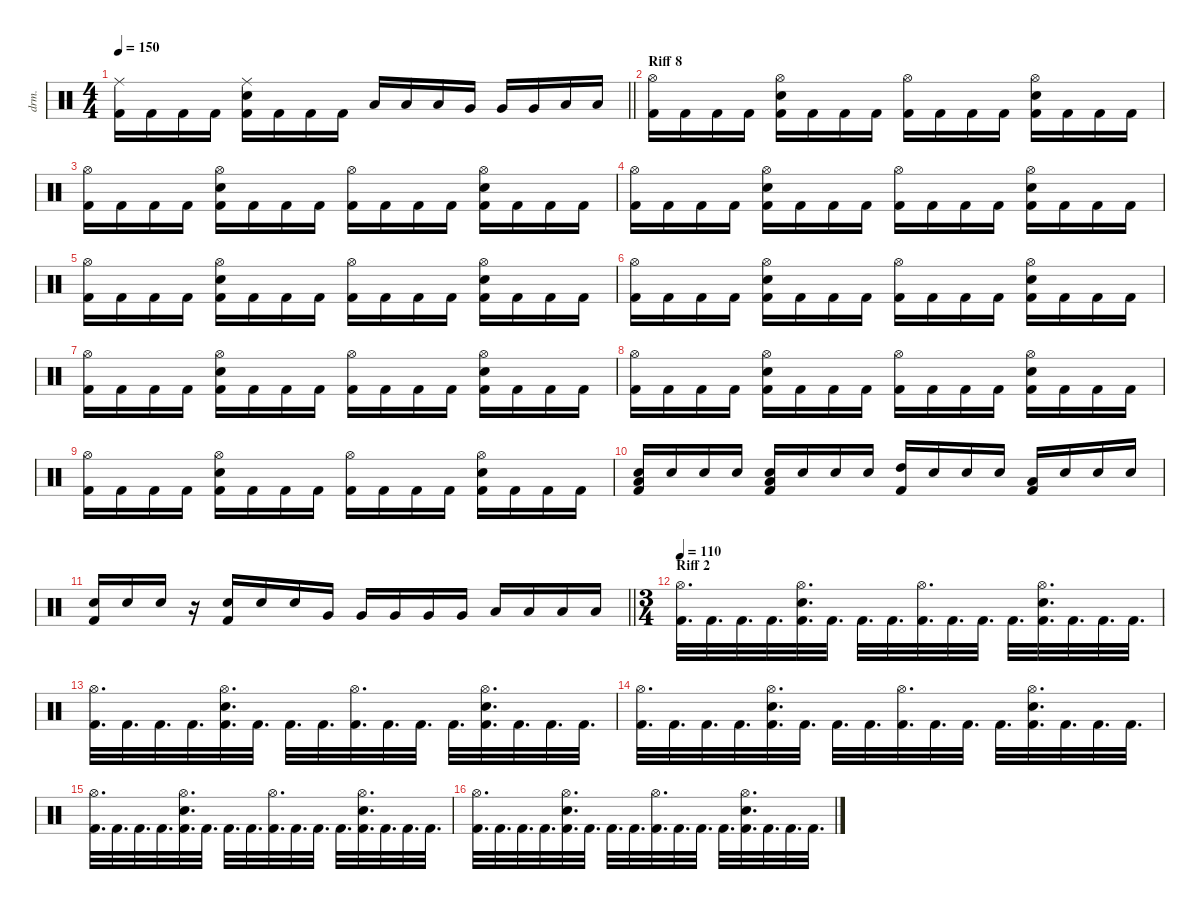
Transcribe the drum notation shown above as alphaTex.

\defaultSystemsLayout 4
\hideDynamics
\bracketExtendMode nobrackets
\otherSystemsTrackNameOrientation horizontal
\track ("Drums" "drm.") {instrument percussion}
\staff {score}
\articulation defaults
\ts (4 4)
\tempo 150
\clef neutral
\barLineRight lightlight
\ks c
("Ride (middle)" "Kick (hit) 2").16{dy f} "Kick (hit) 2".16 "Kick (hit) 2".16 "Kick (hit) 2".16 ("Snare (hit) 2" "Ride (middle)" "Kick (hit) 2").16 "Kick (hit) 2".16 "Kick (hit) 2".16 "Kick (hit) 2".16 "Low Tom (hit)".16 "Low Tom (hit)".16 "Low Tom (hit)".16 "Very Low Tom (hit)".16 "Very Low Tom (hit)".16 "Very Low Tom (hit)".16 "Low Floor Tom (hit)".16 "Low Floor Tom (hit)".16 |
\section ("" "Riff 8")
("Hi-Hat (open)" "Kick (hit) 2").16 "Kick (hit) 2".16 "Kick (hit) 2".16 "Kick (hit) 2".16 ("Hi-Hat (open)" "Snare (hit) 2" "Kick (hit) 2").16 "Kick (hit) 2".16 "Kick (hit) 2".16 "Kick (hit) 2".16 ("Hi-Hat (open)" "Kick (hit) 2").16 "Kick (hit) 2".16 "Kick (hit) 2".16 "Kick (hit) 2".16 ("Hi-Hat (open)" "Snare (hit) 2" "Kick (hit) 2").16 "Kick (hit) 2".16 "Kick (hit) 2".16 "Kick (hit) 2".16 |
("Hi-Hat (open)" "Kick (hit) 2").16 "Kick (hit) 2".16 "Kick (hit) 2".16 "Kick (hit) 2".16 ("Hi-Hat (open)" "Snare (hit) 2" "Kick (hit) 2").16 "Kick (hit) 2".16 "Kick (hit) 2".16 "Kick (hit) 2".16 ("Hi-Hat (open)" "Kick (hit) 2").16 "Kick (hit) 2".16 "Kick (hit) 2".16 "Kick (hit) 2".16 ("Hi-Hat (open)" "Snare (hit) 2" "Kick (hit) 2").16 "Kick (hit) 2".16 "Kick (hit) 2".16 "Kick (hit) 2".16 |
("Hi-Hat (open)" "Kick (hit) 2").16 "Kick (hit) 2".16 "Kick (hit) 2".16 "Kick (hit) 2".16 ("Hi-Hat (open)" "Snare (hit) 2" "Kick (hit) 2").16 "Kick (hit) 2".16 "Kick (hit) 2".16 "Kick (hit) 2".16 ("Hi-Hat (open)" "Kick (hit) 2").16 "Kick (hit) 2".16 "Kick (hit) 2".16 "Kick (hit) 2".16 ("Hi-Hat (open)" "Snare (hit) 2" "Kick (hit) 2").16 "Kick (hit) 2".16 "Kick (hit) 2".16 "Kick (hit) 2".16 |
("Hi-Hat (open)" "Kick (hit) 2").16 "Kick (hit) 2".16 "Kick (hit) 2".16 "Kick (hit) 2".16 ("Hi-Hat (open)" "Snare (hit) 2" "Kick (hit) 2").16 "Kick (hit) 2".16 "Kick (hit) 2".16 "Kick (hit) 2".16 ("Hi-Hat (open)" "Kick (hit) 2").16 "Kick (hit) 2".16 "Kick (hit) 2".16 "Kick (hit) 2".16 ("Hi-Hat (open)" "Snare (hit) 2" "Kick (hit) 2").16 "Kick (hit) 2".16 "Kick (hit) 2".16 "Kick (hit) 2".16 |
("Hi-Hat (open)" "Kick (hit) 2").16 "Kick (hit) 2".16 "Kick (hit) 2".16 "Kick (hit) 2".16 ("Hi-Hat (open)" "Snare (hit) 2" "Kick (hit) 2").16 "Kick (hit) 2".16 "Kick (hit) 2".16 "Kick (hit) 2".16 ("Hi-Hat (open)" "Kick (hit) 2").16 "Kick (hit) 2".16 "Kick (hit) 2".16 "Kick (hit) 2".16 ("Hi-Hat (open)" "Snare (hit) 2" "Kick (hit) 2").16 "Kick (hit) 2".16 "Kick (hit) 2".16 "Kick (hit) 2".16 |
("Hi-Hat (open)" "Kick (hit) 2").16 "Kick (hit) 2".16 "Kick (hit) 2".16 "Kick (hit) 2".16 ("Hi-Hat (open)" "Snare (hit) 2" "Kick (hit) 2").16 "Kick (hit) 2".16 "Kick (hit) 2".16 "Kick (hit) 2".16 ("Hi-Hat (open)" "Kick (hit) 2").16 "Kick (hit) 2".16 "Kick (hit) 2".16 "Kick (hit) 2".16 ("Hi-Hat (open)" "Snare (hit) 2" "Kick (hit) 2").16 "Kick (hit) 2".16 "Kick (hit) 2".16 "Kick (hit) 2".16 |
("Hi-Hat (open)" "Kick (hit) 2").16 "Kick (hit) 2".16 "Kick (hit) 2".16 "Kick (hit) 2".16 ("Hi-Hat (open)" "Snare (hit) 2" "Kick (hit) 2").16 "Kick (hit) 2".16 "Kick (hit) 2".16 "Kick (hit) 2".16 ("Hi-Hat (open)" "Kick (hit) 2").16 "Kick (hit) 2".16 "Kick (hit) 2".16 "Kick (hit) 2".16 ("Hi-Hat (open)" "Snare (hit) 2" "Kick (hit) 2").16 "Kick (hit) 2".16 "Kick (hit) 2".16 "Kick (hit) 2".16 |
("Hi-Hat (open)" "Kick (hit) 2").16 "Kick (hit) 2".16 "Kick (hit) 2".16 "Kick (hit) 2".16 ("Hi-Hat (open)" "Snare (hit) 2" "Kick (hit) 2").16 "Kick (hit) 2".16 "Kick (hit) 2".16 "Kick (hit) 2".16 ("Hi-Hat (open)" "Kick (hit) 2").16 "Kick (hit) 2".16 "Kick (hit) 2".16 "Kick (hit) 2".16 ("Hi-Hat (open)" "Snare (hit) 2" "Kick (hit) 2").16 "Kick (hit) 2".16 "Kick (hit) 2".16 "Kick (hit) 2".16 |
("Low Tom (hit)" "Snare (hit) 2" "Kick (hit) 2").16 "Snare (hit) 2".16 "Snare (hit) 2".16 "Snare (hit) 2".16 ("Low Tom (hit)" "Snare (hit) 2" "Kick (hit) 2").16 "Snare (hit) 2".16 "Snare (hit) 2".16 "Snare (hit) 2".16 ("High Tom (hit)" "Kick (hit) 2").16 "Snare (hit) 2".16 "Snare (hit) 2".16 "Snare (hit) 2".16 ("Low Tom (hit)" "Kick (hit) 2").16 "Snare (hit) 2".16 "Snare (hit) 2".16 "Snare (hit) 2".16 |
\barLineRight lightlight
("Snare (hit) 2" "Kick (hit) 2").16 "Snare (hit) 2".16 "Snare (hit) 2".16 r.16 ("Snare (hit) 2" "Kick (hit) 2").16 "Snare (hit) 2".16 "Snare (hit) 2".16 "Very Low Tom (hit)".16 "Very Low Tom (hit)".16 "Very Low Tom (hit)".16 "Very Low Tom (hit)".16 "Very Low Tom (hit)".16 "Low Floor Tom (hit)".16 "Low Floor Tom (hit)".16 "Low Floor Tom (hit)".16 "Low Floor Tom (hit)".16 |
\ts (3 4)
\beaming (8 2 2 2 2)
\section ("" "Riff 2")
\tempo 110
("Hi-Hat (open)" "Kick (hit) 2").32{d} "Kick (hit) 2".32{d} "Kick (hit) 2".32{d} "Kick (hit) 2".32{d} ("Hi-Hat (open)" "Snare (hit) 2" "Kick (hit) 2").32{d} "Kick (hit) 2".32{d} "Kick (hit) 2".32{d} "Kick (hit) 2".32{d} ("Hi-Hat (open)" "Kick (hit) 2").32{d} "Kick (hit) 2".32{d} "Kick (hit) 2".32{d} "Kick (hit) 2".32{d} ("Hi-Hat (open)" "Snare (hit) 2" "Kick (hit) 2").32{d} "Kick (hit) 2".32{d} "Kick (hit) 2".32{d} "Kick (hit) 2".32{d} |
("Hi-Hat (open)" "Kick (hit) 2").32{d} "Kick (hit) 2".32{d} "Kick (hit) 2".32{d} "Kick (hit) 2".32{d} ("Hi-Hat (open)" "Snare (hit) 2" "Kick (hit) 2").32{d} "Kick (hit) 2".32{d} "Kick (hit) 2".32{d} "Kick (hit) 2".32{d} ("Hi-Hat (open)" "Kick (hit) 2").32{d} "Kick (hit) 2".32{d} "Kick (hit) 2".32{d} "Kick (hit) 2".32{d} ("Hi-Hat (open)" "Snare (hit) 2" "Kick (hit) 2").32{d} "Kick (hit) 2".32{d} "Kick (hit) 2".32{d} "Kick (hit) 2".32{d} |
("Hi-Hat (open)" "Kick (hit) 2").32{d} "Kick (hit) 2".32{d} "Kick (hit) 2".32{d} "Kick (hit) 2".32{d} ("Hi-Hat (open)" "Snare (hit) 2" "Kick (hit) 2").32{d} "Kick (hit) 2".32{d} "Kick (hit) 2".32{d} "Kick (hit) 2".32{d} ("Hi-Hat (open)" "Kick (hit) 2").32{d} "Kick (hit) 2".32{d} "Kick (hit) 2".32{d} "Kick (hit) 2".32{d} ("Hi-Hat (open)" "Snare (hit) 2" "Kick (hit) 2").32{d} "Kick (hit) 2".32{d} "Kick (hit) 2".32{d} "Kick (hit) 2".32{d} |
("Hi-Hat (open)" "Kick (hit) 2").32{d} "Kick (hit) 2".32{d} "Kick (hit) 2".32{d} "Kick (hit) 2".32{d} ("Hi-Hat (open)" "Snare (hit) 2" "Kick (hit) 2").32{d} "Kick (hit) 2".32{d} "Kick (hit) 2".32{d} "Kick (hit) 2".32{d} ("Hi-Hat (open)" "Kick (hit) 2").32{d} "Kick (hit) 2".32{d} "Kick (hit) 2".32{d} "Kick (hit) 2".32{d} ("Hi-Hat (open)" "Snare (hit) 2" "Kick (hit) 2").32{d} "Kick (hit) 2".32{d} "Kick (hit) 2".32{d} "Kick (hit) 2".32{d} |
("Hi-Hat (open)" "Kick (hit) 2").32{d} "Kick (hit) 2".32{d} "Kick (hit) 2".32{d} "Kick (hit) 2".32{d} ("Hi-Hat (open)" "Snare (hit) 2" "Kick (hit) 2").32{d} "Kick (hit) 2".32{d} "Kick (hit) 2".32{d} "Kick (hit) 2".32{d} ("Hi-Hat (open)" "Kick (hit) 2").32{d} "Kick (hit) 2".32{d} "Kick (hit) 2".32{d} "Kick (hit) 2".32{d} ("Hi-Hat (open)" "Snare (hit) 2" "Kick (hit) 2").32{d} "Kick (hit) 2".32{d} "Kick (hit) 2".32{d} "Kick (hit) 2".32{d}
